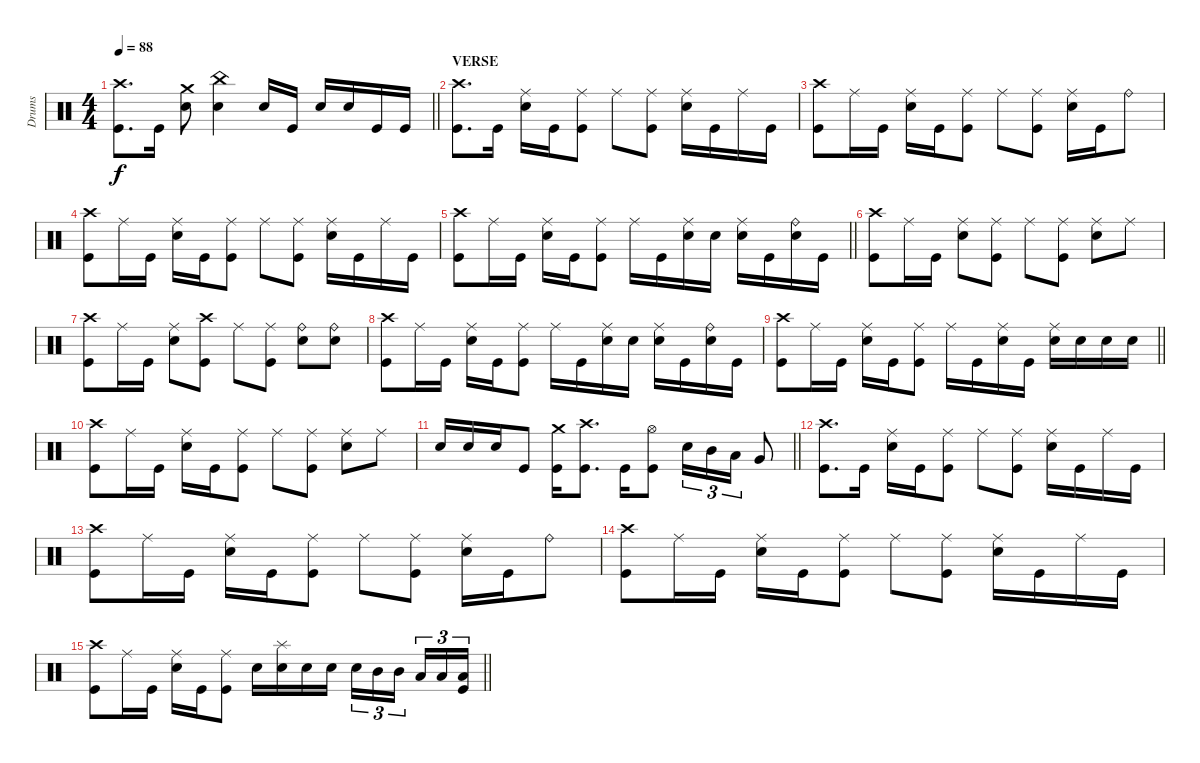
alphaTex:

\track ("Drums" "Drums") {instrument percussion}
\staff
\articulation defaults
\ts (4 4)
\tempo 88
\clef neutral
\barLineRight lightlight
\ks c
("Crash high (hit)" "Kick (hit)").8{d dy f} "Kick (hit)".16 ("Crash medium (hit)" "Electric Snare (hit)").8 ("China (hit)" "Electric Snare (hit)").4 "Electric Snare (hit)".16 "Kick (hit)".16 "Electric Snare (hit)".16 "Electric Snare (hit)".16 "Kick (hit)".16 "Kick (hit)".16 |
\section ("" "VERSE")
("Crash high (hit)" "Kick (hit)").8{d} "Kick (hit)".16 ("Ride (middle)" "Electric Snare (hit)").16 "Kick (hit)".16 ("Ride (middle)" "Kick (hit)").8 "Ride (middle)".8 ("Ride (middle)" "Kick (hit)").8 ("Ride (middle)" "Electric Snare (hit)").16 "Kick (hit)".16 "Ride (middle)".16 "Kick (hit)".16 |
("Crash high (hit)" "Kick (hit)").8 "Ride (middle)".16 "Kick (hit)".16 ("Ride (middle)" "Electric Snare (hit)").16 "Kick (hit)".16 ("Ride (middle)" "Kick (hit)").8 "Ride (middle)".8 ("Ride (middle)" "Kick (hit)").8 ("Ride (middle)" "Electric Snare (hit)").16 "Kick (hit)".16 "Ride (bell)".8 |
("Crash high (hit)" "Kick (hit)").8 "Ride (middle)".16 "Kick (hit)".16 ("Ride (middle)" "Electric Snare (hit)").16 "Kick (hit)".16 ("Ride (middle)" "Kick (hit)").8 "Ride (middle)".8 ("Ride (middle)" "Kick (hit)").8 ("Ride (middle)" "Electric Snare (hit)").16 "Kick (hit)".16 "Ride (middle)".16 "Kick (hit)".16 |
\barLineRight lightlight
("Crash high (hit)" "Kick (hit)").8 "Ride (middle)".16 "Kick (hit)".16 ("Ride (middle)" "Electric Snare (hit)").16 "Kick (hit)".16 ("Ride (middle)" "Kick (hit)").8 "Ride (middle)".16 "Kick (hit)".16 ("Ride (middle)" "Electric Snare (hit)").16 "Electric Snare (hit)".16 ("Ride (middle)" "Electric Snare (hit)").16 "Kick (hit)".16 ("Ride (bell)" "Electric Snare (hit)").16 "Kick (hit)".16 |
("Crash high (hit)" "Kick (hit)").8 "Ride (middle)".16 "Kick (hit)".16 ("Ride (middle)" "Electric Snare (hit)").8 ("Ride (middle)" "Kick (hit)").8 "Ride (middle)".8 ("Ride (middle)" "Kick (hit)").8 ("Ride (middle)" "Electric Snare (hit)").8 "Ride (middle)".8 |
("Crash high (hit)" "Kick (hit)").8 "Ride (middle)".16 "Kick (hit)".16 ("Ride (middle)" "Electric Snare (hit)").8 ("Crash high (hit)" "Kick (hit)").8 "Ride (middle)".8 ("Ride (middle)" "Kick (hit)").8 ("Ride (bell)" "Electric Snare (hit)").8 ("Ride (bell)" "Electric Snare (hit)").8 |
("Crash high (hit)" "Kick (hit)").8 "Ride (middle)".16 "Kick (hit)".16 ("Ride (middle)" "Electric Snare (hit)").16 "Kick (hit)".16 ("Ride (middle)" "Kick (hit)").8 "Ride (middle)".16 "Kick (hit)".16 ("Ride (middle)" "Electric Snare (hit)").16 "Electric Snare (hit)".16 ("Ride (middle)" "Electric Snare (hit)").16 "Kick (hit)".16 ("Ride (bell)" "Electric Snare (hit)").16 "Kick (hit)".16 |
\barLineRight lightlight
("Crash high (hit)" "Kick (hit)").8 "Ride (middle)".16 "Kick (hit)".16 ("Ride (middle)" "Electric Snare (hit)").16 "Kick (hit)".16 ("Ride (middle)" "Kick (hit)").8 "Ride (middle)".16 "Kick (hit)".16 ("Ride (middle)" "Electric Snare (hit)").16 "Kick (hit)".16 ("Ride (middle)" "Electric Snare (hit)").16 "Electric Snare (hit)".16 "Electric Snare (hit)".16 "Electric Snare (hit)".16 |
("Crash high (hit)" "Kick (hit)").8 "Ride (middle)".16 "Kick (hit)".16 ("Ride (middle)" "Electric Snare (hit)").16 "Kick (hit)".16 ("Ride (middle)" "Kick (hit)").8 "Ride (middle)".8 ("Ride (middle)" "Kick (hit)").8 ("Ride (middle)" "Electric Snare (hit)").8 "Ride (middle)".8 |
\barLineRight lightlight "Electric Snare (hit)".16 "Electric Snare (hit)".16 "Electric Snare (hit)".16 "Kick (hit)".8
("Crash medium (hit)" "Kick (hit)").16 ("Crash high (hit)" "Kick (hit)").8{d} "Kick (hit)".16 ("Hi-Hat (open)" "Kick (hit)").8 "Electric Snare (hit)".16{tu (3 2)} "Mid Tom (hit)".16{tu (3 2)} "Low Tom (hit)".16{tu (3 2)} "Very Low Tom (hit)".8 |
("Crash high (hit)" "Kick (hit)").8{d} "Kick (hit)".16 ("Ride (middle)" "Electric Snare (hit)").16 "Kick (hit)".16 ("Ride (middle)" "Kick (hit)").8 "Ride (middle)".8 ("Ride (middle)" "Kick (hit)").8 ("Ride (middle)" "Electric Snare (hit)").16 "Kick (hit)".16 "Ride (middle)".16 "Kick (hit)".16 |
("Crash high (hit)" "Kick (hit)").8 "Ride (middle)".16 "Kick (hit)".16 ("Ride (middle)" "Electric Snare (hit)").16 "Kick (hit)".16 ("Ride (middle)" "Kick (hit)").8 "Ride (middle)".8 ("Ride (middle)" "Kick (hit)").8 ("Ride (middle)" "Electric Snare (hit)").16 "Kick (hit)".16 "Ride (bell)".8 |
("Crash high (hit)" "Kick (hit)").8 "Ride (middle)".16 "Kick (hit)".16 ("Ride (middle)" "Electric Snare (hit)").16 "Kick (hit)".16 ("Ride (middle)" "Kick (hit)").8 "Ride (middle)".8 ("Ride (middle)" "Kick (hit)").8 ("Ride (middle)" "Electric Snare (hit)").16 "Kick (hit)".16 "Ride (middle)".16 "Kick (hit)".16 |
\barLineRight lightlight
("Crash high (hit)" "Kick (hit)").8 "Ride (middle)".16 "Kick (hit)".16 ("Ride (middle)" "Electric Snare (hit)").16 "Kick (hit)".16 ("Ride (middle)" "Kick (hit)").8 "Electric Snare (hit)".16 ("Splash (hit)" "Electric Snare (hit)").16 "Electric Snare (hit)".16 "Electric Snare (hit)".16 "Electric Snare (hit)".16{tu (3 2)} "Mid Tom (hit)".16{tu (3 2)} "Mid Tom (hit)".16{tu (3 2) beam splitsecondary} "Low Tom (hit)".16{tu (3 2)} "Low Tom (hit)".16{tu (3 2)} ("Low Floor Tom (hit)" "Kick (hit)").16{tu (3 2)}
